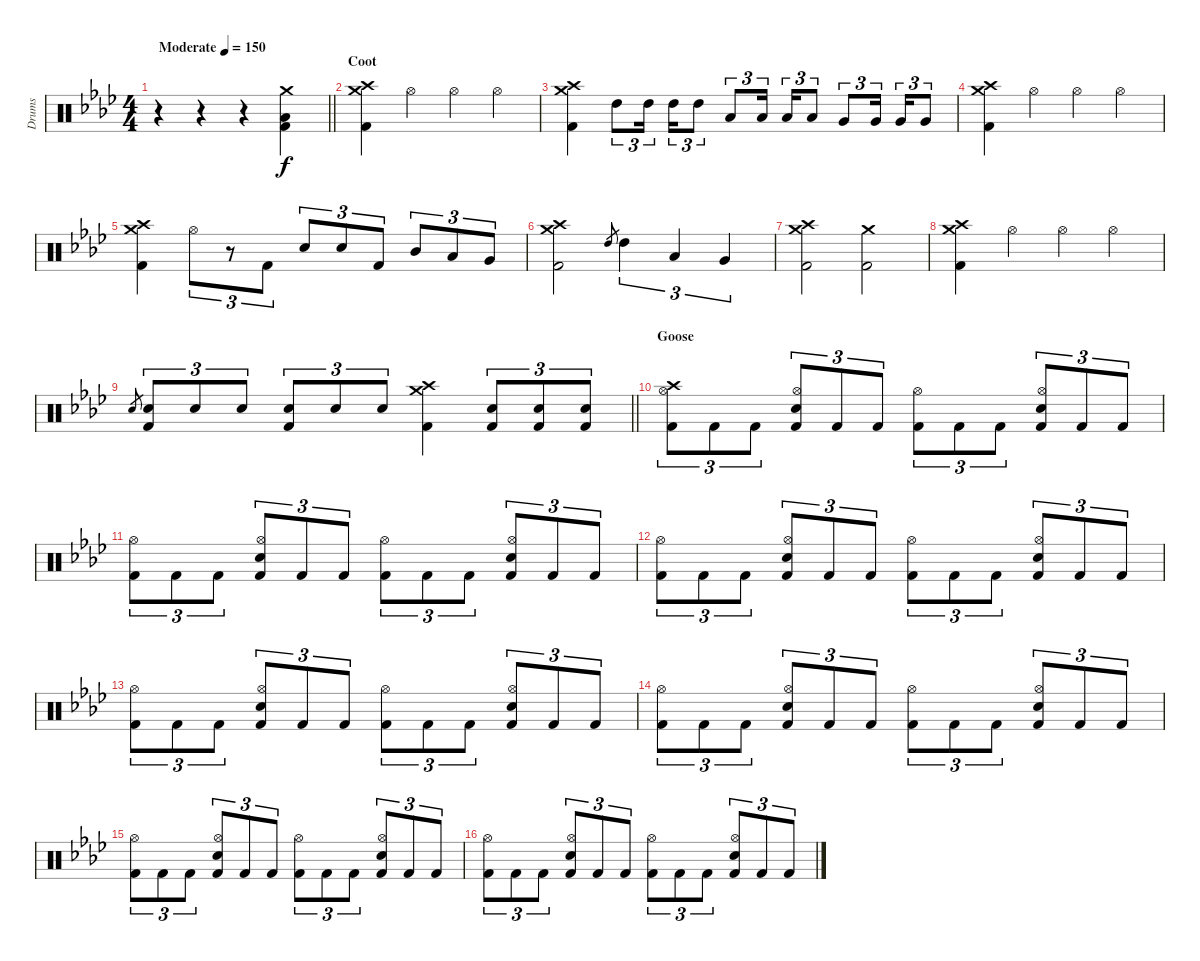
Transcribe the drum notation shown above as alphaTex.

\track ("Drums" "Drums") {instrument percussion}
\staff {score}
\articulation defaults
\ts (4 4)
\tempo (150 "Moderate")
\clef neutral
\barLineRight lightlight
\ks fminor
r.4{dy f} r.4 r.4 ("Crash medium (hit)" "Low Floor Tom (hit)" "Kick (hit) 2").4 |
\section ("" "Coot")
("Crash high (hit)" "Crash medium (hit)" "Kick (hit) 2").4 "Hi-Hat (open)".4 "Hi-Hat (open)".4 "Hi-Hat (open)".4 |
("Crash high (hit)" "Crash medium (hit)" "Kick (hit) 2").4 "High Tom (hit)".8{tu (3 2)} "High Tom (hit)".16{tu (3 2) beam splitsecondary} "High Tom (hit)".16{tu (3 2)} "High Tom (hit)".8{tu (3 2)} "Low Tom (hit)".8{tu (3 2)} "Low Tom (hit)".16{tu (3 2) beam splitsecondary} "Low Tom (hit)".16{tu (3 2)} "Low Tom (hit)".8{tu (3 2)} "Very Low Tom (hit)".8{tu (3 2)} "Very Low Tom (hit)".16{tu (3 2) beam splitsecondary} "Very Low Tom (hit)".16{tu (3 2)} "Very Low Tom (hit)".8{tu (3 2)} |
("Crash high (hit)" "Crash medium (hit)" "Kick (hit) 2").4 "Hi-Hat (open)".4 "Hi-Hat (open)".4 "Hi-Hat (open)".4 |
("Crash high (hit)" "Crash medium (hit)" "Kick (hit) 2").4 "Hi-Hat (open)".8{tu (3 2)} r.8{tu (3 2)} "Kick (hit) 2".8{tu (3 2)} "Snare (hit) 2".8{tu (3 2)} "Snare (hit) 2".8{tu (3 2)} "Kick (hit) 2".8{tu (3 2)} "Mid Tom (hit)".8{tu (3 2)} "Low Tom (hit)".8{tu (3 2)} "Very Low Tom (hit)".8{tu (3 2)} |
("Crash high (hit)" "Crash medium (hit)" "Kick (hit) 2").2 "High Tom (hit)".8{gr} "High Tom (hit)".4{tu (3 2)} "Low Tom (hit)".4{tu (3 2)} "Very Low Tom (hit)".4{tu (3 2)} |
("Crash high (hit)" "Crash medium (hit)" "Kick (hit) 2").2 ("Crash medium (hit)" "Kick (hit) 2").2 |
("Crash high (hit)" "Crash medium (hit)" "Kick (hit) 2").4 "Hi-Hat (open)".4 "Hi-Hat (open)".4 "Hi-Hat (open)".4 |
\barLineRight lightlight "Snare (hit) 2".8{gr}
("Snare (hit) 2" "Kick (hit) 2").8{tu (3 2)} "Snare (hit) 2".8{tu (3 2)} "Snare (hit) 2".8{tu (3 2)} ("Snare (hit) 2" "Kick (hit) 2").8{tu (3 2)} "Snare (hit) 2".8{tu (3 2)} "Snare (hit) 2".8{tu (3 2)} ("Crash high (hit)" "Crash medium (hit)" "Kick (hit) 2").4 ("Snare (hit) 2" "Kick (hit) 2").8{tu (3 2)} ("Snare (hit) 2" "Kick (hit) 2").8{tu (3 2)} ("Snare (hit) 2" "Kick (hit) 2").8{tu (3 2)} |
\section ("" "Goose")
("Crash high (hit)" "Hi-Hat (open)" "Kick (hit) 2").8{tu (3 2)} "Kick (hit) 2".8{tu (3 2)} "Kick (hit) 2".8{tu (3 2)} ("Hi-Hat (open)" "Snare (hit) 2" "Kick (hit) 2").8{tu (3 2)} "Kick (hit) 2".8{tu (3 2)} "Kick (hit) 2".8{tu (3 2)} ("Hi-Hat (open)" "Kick (hit) 2").8{tu (3 2)} "Kick (hit) 2".8{tu (3 2)} "Kick (hit) 2".8{tu (3 2)} ("Hi-Hat (open)" "Snare (hit) 2" "Kick (hit) 2").8{tu (3 2)} "Kick (hit) 2".8{tu (3 2)} "Kick (hit) 2".8{tu (3 2)} |
("Hi-Hat (open)" "Kick (hit) 2").8{tu (3 2)} "Kick (hit) 2".8{tu (3 2)} "Kick (hit) 2".8{tu (3 2)} ("Hi-Hat (open)" "Snare (hit) 2" "Kick (hit) 2").8{tu (3 2)} "Kick (hit) 2".8{tu (3 2)} "Kick (hit) 2".8{tu (3 2)} ("Hi-Hat (open)" "Kick (hit) 2").8{tu (3 2)} "Kick (hit) 2".8{tu (3 2)} "Kick (hit) 2".8{tu (3 2)} ("Hi-Hat (open)" "Snare (hit) 2" "Kick (hit) 2").8{tu (3 2)} "Kick (hit) 2".8{tu (3 2)} "Kick (hit) 2".8{tu (3 2)} |
("Hi-Hat (open)" "Kick (hit) 2").8{tu (3 2)} "Kick (hit) 2".8{tu (3 2)} "Kick (hit) 2".8{tu (3 2)} ("Hi-Hat (open)" "Snare (hit) 2" "Kick (hit) 2").8{tu (3 2)} "Kick (hit) 2".8{tu (3 2)} "Kick (hit) 2".8{tu (3 2)} ("Hi-Hat (open)" "Kick (hit) 2").8{tu (3 2)} "Kick (hit) 2".8{tu (3 2)} "Kick (hit) 2".8{tu (3 2)} ("Hi-Hat (open)" "Snare (hit) 2" "Kick (hit) 2").8{tu (3 2)} "Kick (hit) 2".8{tu (3 2)} "Kick (hit) 2".8{tu (3 2)} |
("Hi-Hat (open)" "Kick (hit) 2").8{tu (3 2)} "Kick (hit) 2".8{tu (3 2)} "Kick (hit) 2".8{tu (3 2)} ("Hi-Hat (open)" "Snare (hit) 2" "Kick (hit) 2").8{tu (3 2)} "Kick (hit) 2".8{tu (3 2)} "Kick (hit) 2".8{tu (3 2)} ("Hi-Hat (open)" "Kick (hit) 2").8{tu (3 2)} "Kick (hit) 2".8{tu (3 2)} "Kick (hit) 2".8{tu (3 2)} ("Hi-Hat (open)" "Snare (hit) 2" "Kick (hit) 2").8{tu (3 2)} "Kick (hit) 2".8{tu (3 2)} "Kick (hit) 2".8{tu (3 2)} |
("Hi-Hat (open)" "Kick (hit) 2").8{tu (3 2)} "Kick (hit) 2".8{tu (3 2)} "Kick (hit) 2".8{tu (3 2)} ("Hi-Hat (open)" "Snare (hit) 2" "Kick (hit) 2").8{tu (3 2)} "Kick (hit) 2".8{tu (3 2)} "Kick (hit) 2".8{tu (3 2)} ("Hi-Hat (open)" "Kick (hit) 2").8{tu (3 2)} "Kick (hit) 2".8{tu (3 2)} "Kick (hit) 2".8{tu (3 2)} ("Hi-Hat (open)" "Snare (hit) 2" "Kick (hit) 2").8{tu (3 2)} "Kick (hit) 2".8{tu (3 2)} "Kick (hit) 2".8{tu (3 2)} |
("Hi-Hat (open)" "Kick (hit) 2").8{tu (3 2)} "Kick (hit) 2".8{tu (3 2)} "Kick (hit) 2".8{tu (3 2)} ("Hi-Hat (open)" "Snare (hit) 2" "Kick (hit) 2").8{tu (3 2)} "Kick (hit) 2".8{tu (3 2)} "Kick (hit) 2".8{tu (3 2)} ("Hi-Hat (open)" "Kick (hit) 2").8{tu (3 2)} "Kick (hit) 2".8{tu (3 2)} "Kick (hit) 2".8{tu (3 2)} ("Hi-Hat (open)" "Snare (hit) 2" "Kick (hit) 2").8{tu (3 2)} "Kick (hit) 2".8{tu (3 2)} "Kick (hit) 2".8{tu (3 2)} |
("Hi-Hat (open)" "Kick (hit) 2").8{tu (3 2)} "Kick (hit) 2".8{tu (3 2)} "Kick (hit) 2".8{tu (3 2)} ("Hi-Hat (open)" "Snare (hit) 2" "Kick (hit) 2").8{tu (3 2)} "Kick (hit) 2".8{tu (3 2)} "Kick (hit) 2".8{tu (3 2)} ("Hi-Hat (open)" "Kick (hit) 2").8{tu (3 2)} "Kick (hit) 2".8{tu (3 2)} "Kick (hit) 2".8{tu (3 2)} ("Hi-Hat (open)" "Snare (hit) 2" "Kick (hit) 2").8{tu (3 2)} "Kick (hit) 2".8{tu (3 2)} "Kick (hit) 2".8{tu (3 2)}
